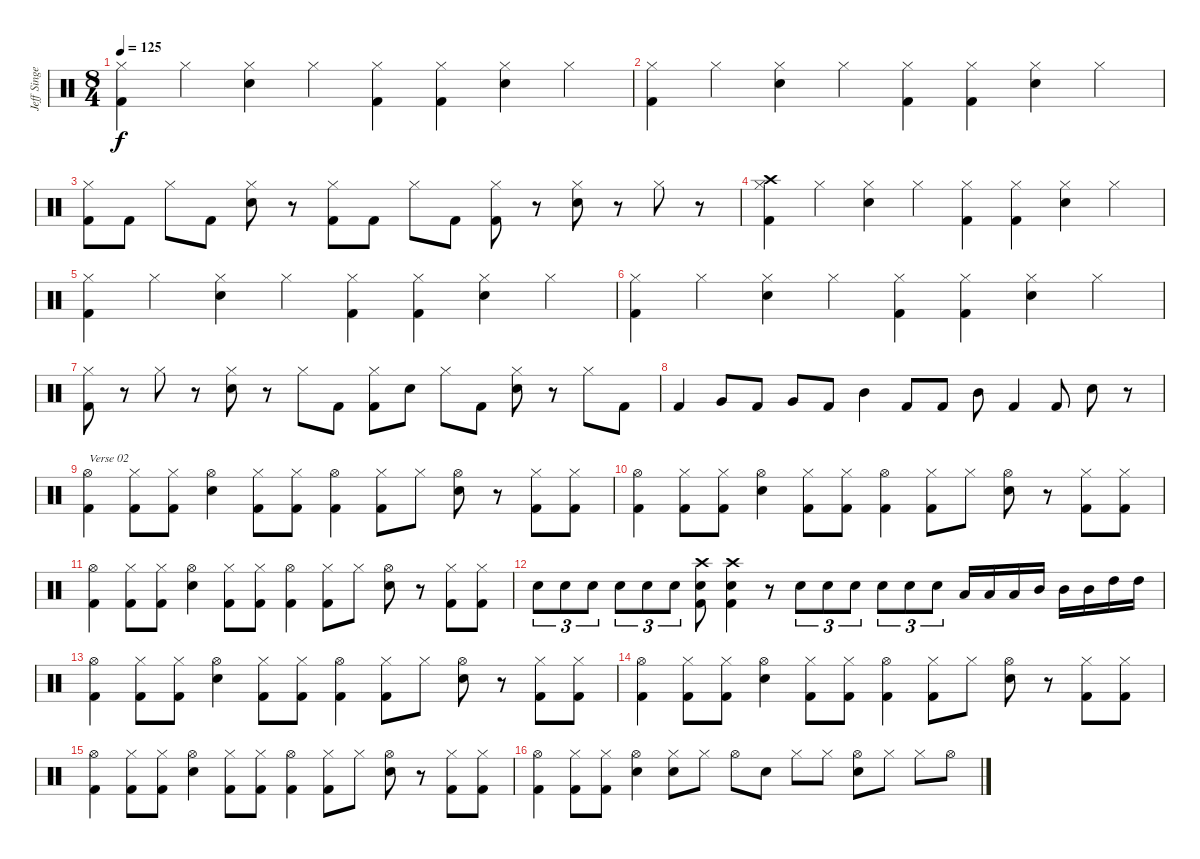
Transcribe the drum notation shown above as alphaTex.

\track ("Jeff Singer" "Jeff Singe") {instrument percussion}
\staff {score}
\articulation defaults
\ts (8 4)
\tempo 125
\clef neutral
\ks c
("Hi-Hat (closed)" "Kick (hit) 2").4{dy f} "Hi-Hat (closed)".4 ("Hi-Hat (closed)" "Snare (hit) 2").4 "Hi-Hat (closed)".4 ("Hi-Hat (closed)" "Kick (hit) 2").4 ("Hi-Hat (closed)" "Kick (hit) 2").4 ("Hi-Hat (closed)" "Snare (hit) 2").4 "Hi-Hat (closed)".4 |
("Hi-Hat (closed)" "Kick (hit) 2").4 "Hi-Hat (closed)".4 ("Hi-Hat (closed)" "Snare (hit) 2").4 "Hi-Hat (closed)".4 ("Hi-Hat (closed)" "Kick (hit) 2").4 ("Hi-Hat (closed)" "Kick (hit) 2").4 ("Hi-Hat (closed)" "Snare (hit) 2").4 "Hi-Hat (closed)".4 |
("Hi-Hat (closed)" "Kick (hit) 2").8 "Kick (hit) 2".8 "Hi-Hat (closed)".8 "Kick (hit) 2".8 ("Hi-Hat (closed)" "Snare (hit) 2").8 r.8 ("Hi-Hat (closed)" "Kick (hit) 2").8 "Kick (hit) 2".8 "Hi-Hat (closed)".8 "Kick (hit) 2".8 ("Hi-Hat (closed)" "Kick (hit) 2").8 r.8 ("Hi-Hat (closed)" "Snare (hit) 2").8 r.8 "Hi-Hat (closed)".8 r.8 |
("Hi-Hat (closed)" "Kick (hit) 2" "Crash high (hit)").4 "Hi-Hat (closed)".4 ("Hi-Hat (closed)" "Snare (hit) 2").4 "Hi-Hat (closed)".4 ("Hi-Hat (closed)" "Kick (hit) 2").4 ("Hi-Hat (closed)" "Kick (hit) 2").4 ("Hi-Hat (closed)" "Snare (hit) 2").4 "Hi-Hat (closed)".4 |
("Hi-Hat (closed)" "Kick (hit) 2").4 "Hi-Hat (closed)".4 ("Hi-Hat (closed)" "Snare (hit) 2").4 "Hi-Hat (closed)".4 ("Hi-Hat (closed)" "Kick (hit) 2").4 ("Hi-Hat (closed)" "Kick (hit) 2").4 ("Hi-Hat (closed)" "Snare (hit) 2").4 "Hi-Hat (closed)".4 |
("Hi-Hat (closed)" "Kick (hit) 2").4 "Hi-Hat (closed)".4 ("Hi-Hat (closed)" "Snare (hit) 2").4 "Hi-Hat (closed)".4 ("Hi-Hat (closed)" "Kick (hit) 2").4 ("Hi-Hat (closed)" "Kick (hit) 2").4 ("Hi-Hat (closed)" "Snare (hit) 2").4 "Hi-Hat (closed)".4 |
("Hi-Hat (closed)" "Kick (hit) 2").8 r.8 "Hi-Hat (closed)".8 r.8 ("Hi-Hat (closed)" "Snare (hit) 2").8 r.8 "Hi-Hat (closed)".8 "Kick (hit) 2".8 ("Hi-Hat (closed)" "Kick (hit) 2").8 "Snare (hit) 2".8 "Hi-Hat (closed)".8 "Kick (hit) 2".8 ("Hi-Hat (closed)" "Snare (hit) 2").8 r.8 "Hi-Hat (closed)".8 "Kick (hit) 2".8 |
"Kick (hit) 2".4 "Very Low Tom (hit)".8 "Kick (hit) 2".8 "Very Low Tom (hit)".8 "Kick (hit) 2".8 "Mid Tom (hit)".4 "Kick (hit) 2".8 "Kick (hit) 2".8 "Mid Tom (hit)".8 "Kick (hit) 2".4 "Kick (hit) 2".8 "Snare (hit) 2".8 r.8 |
("Hi-Hat (open)" "Kick (hit) 2").4{txt "Verse 02"} ("Hi-Hat (closed)" "Kick (hit) 2").8 ("Hi-Hat (closed)" "Kick (hit) 2").8 ("Hi-Hat (open)" "Snare (hit) 2").4 ("Hi-Hat (closed)" "Kick (hit) 2").8 ("Hi-Hat (closed)" "Kick (hit) 2").8 ("Hi-Hat (open)" "Kick (hit) 2").4 ("Hi-Hat (closed)" "Kick (hit) 2").8 "Hi-Hat (closed)".8 ("Hi-Hat (open)" "Snare (hit) 2").8 r.8 ("Hi-Hat (closed)" "Kick (hit) 2").8 ("Hi-Hat (closed)" "Kick (hit) 2").8 |
("Hi-Hat (open)" "Kick (hit) 2").4 ("Hi-Hat (closed)" "Kick (hit) 2").8 ("Hi-Hat (closed)" "Kick (hit) 2").8 ("Hi-Hat (open)" "Snare (hit) 2").4 ("Hi-Hat (closed)" "Kick (hit) 2").8 ("Hi-Hat (closed)" "Kick (hit) 2").8 ("Hi-Hat (open)" "Kick (hit) 2").4 ("Hi-Hat (closed)" "Kick (hit) 2").8 "Hi-Hat (closed)".8 ("Hi-Hat (open)" "Snare (hit) 2").8 r.8 ("Hi-Hat (closed)" "Kick (hit) 2").8 ("Hi-Hat (closed)" "Kick (hit) 2").8 |
("Hi-Hat (open)" "Kick (hit) 2").4 ("Hi-Hat (closed)" "Kick (hit) 2").8 ("Hi-Hat (closed)" "Kick (hit) 2").8 ("Hi-Hat (open)" "Snare (hit) 2").4 ("Hi-Hat (closed)" "Kick (hit) 2").8 ("Hi-Hat (closed)" "Kick (hit) 2").8 ("Hi-Hat (open)" "Kick (hit) 2").4 ("Hi-Hat (closed)" "Kick (hit) 2").8 "Hi-Hat (closed)".8 ("Hi-Hat (open)" "Snare (hit) 2").8 r.8 ("Hi-Hat (closed)" "Kick (hit) 2").8 ("Hi-Hat (closed)" "Kick (hit) 2").8 |
"Snare (hit) 2".8{tu (3 2)} "Snare (hit) 2".8{tu (3 2)} "Snare (hit) 2".8{tu (3 2)} "Snare (hit) 2".8{tu (3 2)} "Snare (hit) 2".8{tu (3 2)} "Snare (hit) 2".8{tu (3 2)} ("Kick (hit) 2" "Snare (hit) 2" "Crash high (hit)").8 ("Kick (hit) 2" "Snare (hit) 2" "Crash high (hit)").4 r.8 "Snare (hit) 2".8{tu (3 2)} "Snare (hit) 2".8{tu (3 2)} "Snare (hit) 2".8{tu (3 2)} "Snare (hit) 2".8{tu (3 2)} "Snare (hit) 2".8{tu (3 2)} "Snare (hit) 2".8{tu (3 2)} "Low Tom (hit)".16 "Low Tom (hit)".16 "Low Tom (hit)".16 "Mid Tom (hit)".16 "Mid Tom (hit)".16 "Mid Tom (hit)".16 "High Tom (hit)".16 "High Tom (hit)".16 |
("Hi-Hat (open)" "Kick (hit) 2").4 ("Hi-Hat (closed)" "Kick (hit) 2").8 ("Hi-Hat (closed)" "Kick (hit) 2").8 ("Hi-Hat (open)" "Snare (hit) 2").4 ("Hi-Hat (closed)" "Kick (hit) 2").8 ("Hi-Hat (closed)" "Kick (hit) 2").8 ("Hi-Hat (open)" "Kick (hit) 2").4 ("Hi-Hat (closed)" "Kick (hit) 2").8 "Hi-Hat (closed)".8 ("Hi-Hat (open)" "Snare (hit) 2").8 r.8 ("Hi-Hat (closed)" "Kick (hit) 2").8 ("Hi-Hat (closed)" "Kick (hit) 2").8 |
("Hi-Hat (open)" "Kick (hit) 2").4 ("Hi-Hat (closed)" "Kick (hit) 2").8 ("Hi-Hat (closed)" "Kick (hit) 2").8 ("Hi-Hat (open)" "Snare (hit) 2").4 ("Hi-Hat (closed)" "Kick (hit) 2").8 ("Hi-Hat (closed)" "Kick (hit) 2").8 ("Hi-Hat (open)" "Kick (hit) 2").4 ("Hi-Hat (closed)" "Kick (hit) 2").8 "Hi-Hat (closed)".8 ("Hi-Hat (open)" "Snare (hit) 2").8 r.8 ("Hi-Hat (closed)" "Kick (hit) 2").8 ("Hi-Hat (closed)" "Kick (hit) 2").8 |
("Hi-Hat (open)" "Kick (hit) 2").4 ("Hi-Hat (closed)" "Kick (hit) 2").8 ("Hi-Hat (closed)" "Kick (hit) 2").8 ("Hi-Hat (open)" "Snare (hit) 2").4 ("Hi-Hat (closed)" "Kick (hit) 2").8 ("Hi-Hat (closed)" "Kick (hit) 2").8 ("Hi-Hat (open)" "Kick (hit) 2").4 ("Hi-Hat (closed)" "Kick (hit) 2").8 "Hi-Hat (closed)".8 ("Hi-Hat (open)" "Snare (hit) 2").8 r.8 ("Hi-Hat (closed)" "Kick (hit) 2").8 ("Hi-Hat (closed)" "Kick (hit) 2").8 |
("Hi-Hat (open)" "Kick (hit) 2").4 ("Hi-Hat (closed)" "Kick (hit) 2").8 ("Hi-Hat (closed)" "Kick (hit) 2").8 ("Hi-Hat (open)" "Snare (hit) 2").4 ("Hi-Hat (closed)" "Snare (hit) 2").8 "Hi-Hat (closed)".8 "Hi-Hat (open)".8 "Snare (hit) 2".8 "Hi-Hat (closed)".8 "Hi-Hat (closed)".8 ("Hi-Hat (open)" "Snare (hit) 2").8 "Hi-Hat (closed)".8 "Hi-Hat (closed)".8 "Hi-Hat (open)".8
